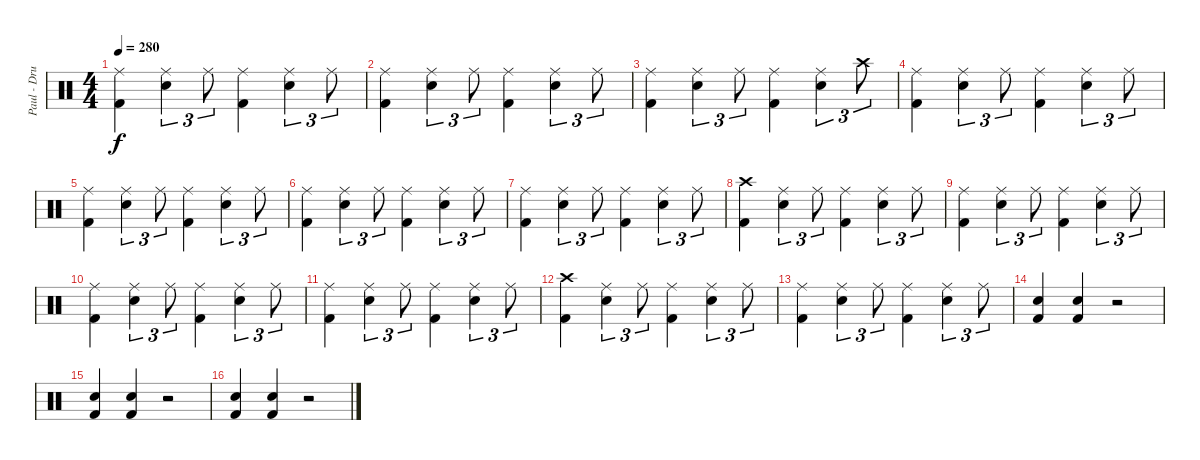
\track ("Paul - Drums" "Paul - Dru") {instrument percussion}
\staff {score}
\articulation defaults
\ts (4 4)
\tempo 280
\clef neutral
\ks c
("Ride (middle)" "Kick (hit) 2").4{dy f} ("Ride (middle)" "Electric Snare (hit)").4{tu (3 2)} "Ride (middle)".8{tu (3 2)} ("Ride (middle)" "Kick (hit) 2").4 ("Ride (middle)" "Electric Snare (hit)").4{tu (3 2)} "Ride (middle)".8{tu (3 2)} |
("Ride (middle)" "Kick (hit) 2").4 ("Ride (middle)" "Electric Snare (hit)").4{tu (3 2)} "Ride (middle)".8{tu (3 2)} ("Ride (middle)" "Kick (hit) 2").4 ("Ride (middle)" "Electric Snare (hit)").4{tu (3 2)} "Ride (middle)".8{tu (3 2)} |
("Ride (middle)" "Kick (hit) 2").4 ("Ride (middle)" "Electric Snare (hit)").4{tu (3 2)} "Ride (middle)".8{tu (3 2)} ("Ride (middle)" "Kick (hit) 2").4 ("Ride (middle)" "Electric Snare (hit)").4{tu (3 2)} "Crash high (hit)".8{tu (3 2)} |
("Ride (middle)" "Kick (hit) 2").4 ("Ride (middle)" "Electric Snare (hit)").4{tu (3 2)} "Ride (middle)".8{tu (3 2)} ("Ride (middle)" "Kick (hit) 2").4 ("Ride (middle)" "Electric Snare (hit)").4{tu (3 2)} "Ride (middle)".8{tu (3 2)} |
("Ride (middle)" "Kick (hit) 2").4 ("Ride (middle)" "Electric Snare (hit)").4{tu (3 2)} "Ride (middle)".8{tu (3 2)} ("Ride (middle)" "Kick (hit) 2").4 ("Ride (middle)" "Electric Snare (hit)").4{tu (3 2)} "Ride (middle)".8{tu (3 2)} |
("Ride (middle)" "Kick (hit) 2").4 ("Ride (middle)" "Electric Snare (hit)").4{tu (3 2)} "Ride (middle)".8{tu (3 2)} ("Ride (middle)" "Kick (hit) 2").4 ("Ride (middle)" "Electric Snare (hit)").4{tu (3 2)} "Ride (middle)".8{tu (3 2)} |
("Ride (middle)" "Kick (hit) 2").4 ("Ride (middle)" "Electric Snare (hit)").4{tu (3 2)} "Ride (middle)".8{tu (3 2)} ("Ride (middle)" "Kick (hit) 2").4 ("Ride (middle)" "Electric Snare (hit)").4{tu (3 2)} "Ride (middle)".8{tu (3 2)} |
("Crash high (hit)" "Kick (hit) 2").4 ("Ride (middle)" "Electric Snare (hit)").4{tu (3 2)} "Ride (middle)".8{tu (3 2)} ("Ride (middle)" "Kick (hit) 2").4 ("Ride (middle)" "Electric Snare (hit)").4{tu (3 2)} "Ride (middle)".8{tu (3 2)} |
("Ride (middle)" "Kick (hit) 2").4 ("Ride (middle)" "Electric Snare (hit)").4{tu (3 2)} "Ride (middle)".8{tu (3 2)} ("Ride (middle)" "Kick (hit) 2").4 ("Ride (middle)" "Electric Snare (hit)").4{tu (3 2)} "Ride (middle)".8{tu (3 2)} |
("Ride (middle)" "Kick (hit) 2").4 ("Ride (middle)" "Electric Snare (hit)").4{tu (3 2)} "Ride (middle)".8{tu (3 2)} ("Ride (middle)" "Kick (hit) 2").4 ("Ride (middle)" "Electric Snare (hit)").4{tu (3 2)} "Ride (middle)".8{tu (3 2)} |
("Ride (middle)" "Kick (hit) 2").4 ("Ride (middle)" "Electric Snare (hit)").4{tu (3 2)} "Ride (middle)".8{tu (3 2)} ("Ride (middle)" "Kick (hit) 2").4 ("Ride (middle)" "Electric Snare (hit)").4{tu (3 2)} "Ride (middle)".8{tu (3 2)} |
("Crash high (hit)" "Kick (hit) 2").4 ("Ride (middle)" "Electric Snare (hit)").4{tu (3 2)} "Ride (middle)".8{tu (3 2)} ("Ride (middle)" "Kick (hit) 2").4 ("Ride (middle)" "Electric Snare (hit)").4{tu (3 2)} "Ride (middle)".8{tu (3 2)} |
("Ride (middle)" "Kick (hit) 2").4 ("Ride (middle)" "Electric Snare (hit)").4{tu (3 2)} "Ride (middle)".8{tu (3 2)} ("Ride (middle)" "Kick (hit) 2").4 ("Ride (middle)" "Electric Snare (hit)").4{tu (3 2)} "Ride (middle)".8{tu (3 2)} |
("Electric Snare (hit)" "Kick (hit) 2").4 ("Electric Snare (hit)" "Kick (hit) 2").4 r.2 |
("Electric Snare (hit)" "Kick (hit) 2").4 ("Electric Snare (hit)" "Kick (hit) 2").4 r.2 |
("Electric Snare (hit)" "Kick (hit) 2").4 ("Electric Snare (hit)" "Kick (hit) 2").4 r.2
